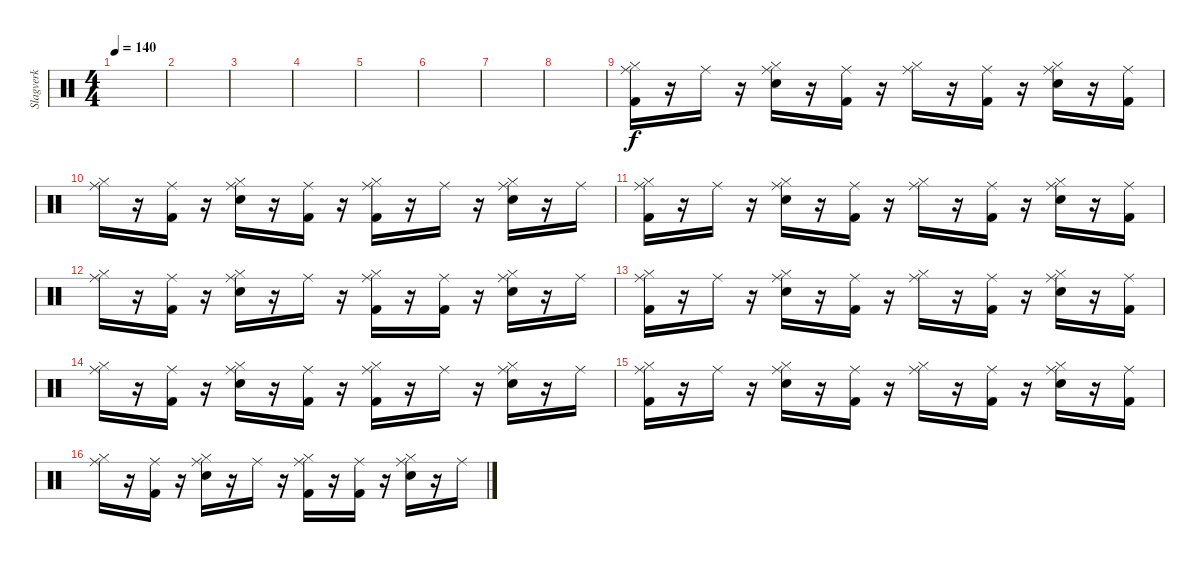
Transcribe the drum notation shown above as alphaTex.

\track ("Slagverk" "Slagverk") {instrument percussion}
\staff {score}
\articulation defaults
\ts (4 4)
\tempo 140
\clef neutral
\ks c
|
|
|
|
|
|
|
|
("Hi-Hat (closed)" "Ride (middle)" "Kick (hit) 2").16 r.16 "Ride (middle)".16 r.16 ("Hi-Hat (closed)" "Ride (middle)" "Electric Snare (hit)").16 r.16 ("Ride (middle)" "Kick (hit) 2").16 r.16 ("Hi-Hat (closed)" "Ride (middle)").16 r.16 ("Ride (middle)" "Kick (hit) 2").16 r.16 ("Hi-Hat (closed)" "Ride (middle)" "Electric Snare (hit)").16 r.16 ("Ride (middle)" "Kick (hit) 2").16 |
("Hi-Hat (closed)" "Ride (middle)").16 r.16 ("Ride (middle)" "Kick (hit) 2").16 r.16 ("Hi-Hat (closed)" "Ride (middle)" "Electric Snare (hit)").16 r.16 ("Ride (middle)" "Kick (hit) 2").16 r.16 ("Hi-Hat (closed)" "Ride (middle)" "Kick (hit) 2").16 r.16 "Ride (middle)".16 r.16 ("Hi-Hat (closed)" "Ride (middle)" "Electric Snare (hit)").16 r.16 "Ride (middle)".16 |
("Hi-Hat (closed)" "Ride (middle)" "Kick (hit) 2").16 r.16 "Ride (middle)".16 r.16 ("Hi-Hat (closed)" "Ride (middle)" "Electric Snare (hit)").16 r.16 ("Ride (middle)" "Kick (hit) 2").16 r.16 ("Hi-Hat (closed)" "Ride (middle)").16 r.16 ("Ride (middle)" "Kick (hit) 2").16 r.16 ("Hi-Hat (closed)" "Ride (middle)" "Electric Snare (hit)").16 r.16 ("Ride (middle)" "Kick (hit) 2").16 |
("Hi-Hat (closed)" "Ride (middle)").16 r.16 ("Ride (middle)" "Kick (hit) 2").16 r.16 ("Hi-Hat (closed)" "Ride (middle)" "Electric Snare (hit)").16 r.16 "Ride (middle)".16 r.16 ("Hi-Hat (closed)" "Ride (middle)" "Kick (hit) 2").16 r.16 ("Ride (middle)" "Kick (hit) 2").16 r.16 ("Hi-Hat (closed)" "Ride (middle)" "Electric Snare (hit)").16 r.16 "Ride (middle)".16 |
("Hi-Hat (closed)" "Ride (middle)" "Kick (hit) 2").16 r.16 "Ride (middle)".16 r.16 ("Hi-Hat (closed)" "Ride (middle)" "Electric Snare (hit)").16 r.16 ("Ride (middle)" "Kick (hit) 2").16 r.16 ("Hi-Hat (closed)" "Ride (middle)").16 r.16 ("Ride (middle)" "Kick (hit) 2").16 r.16 ("Hi-Hat (closed)" "Ride (middle)" "Electric Snare (hit)").16 r.16 ("Ride (middle)" "Kick (hit) 2").16 |
("Hi-Hat (closed)" "Ride (middle)").16 r.16 ("Ride (middle)" "Kick (hit) 2").16 r.16 ("Hi-Hat (closed)" "Ride (middle)" "Electric Snare (hit)").16 r.16 ("Ride (middle)" "Kick (hit) 2").16 r.16 ("Hi-Hat (closed)" "Ride (middle)" "Kick (hit) 2").16 r.16 "Ride (middle)".16 r.16 ("Hi-Hat (closed)" "Ride (middle)" "Electric Snare (hit)").16 r.16 "Ride (middle)".16 |
("Hi-Hat (closed)" "Ride (middle)" "Kick (hit) 2").16 r.16 "Ride (middle)".16 r.16 ("Hi-Hat (closed)" "Ride (middle)" "Electric Snare (hit)").16 r.16 ("Ride (middle)" "Kick (hit) 2").16 r.16 ("Hi-Hat (closed)" "Ride (middle)").16 r.16 ("Ride (middle)" "Kick (hit) 2").16 r.16 ("Hi-Hat (closed)" "Ride (middle)" "Electric Snare (hit)").16 r.16 ("Ride (middle)" "Kick (hit) 2").16 |
("Hi-Hat (closed)" "Ride (middle)").16 r.16 ("Ride (middle)" "Kick (hit) 2").16 r.16 ("Hi-Hat (closed)" "Ride (middle)" "Electric Snare (hit)").16 r.16 "Ride (middle)".16 r.16 ("Hi-Hat (closed)" "Ride (middle)" "Kick (hit) 2").16 r.16 ("Ride (middle)" "Kick (hit) 2").16 r.16 ("Hi-Hat (closed)" "Ride (middle)" "Electric Snare (hit)").16 r.16 "Ride (middle)".16
